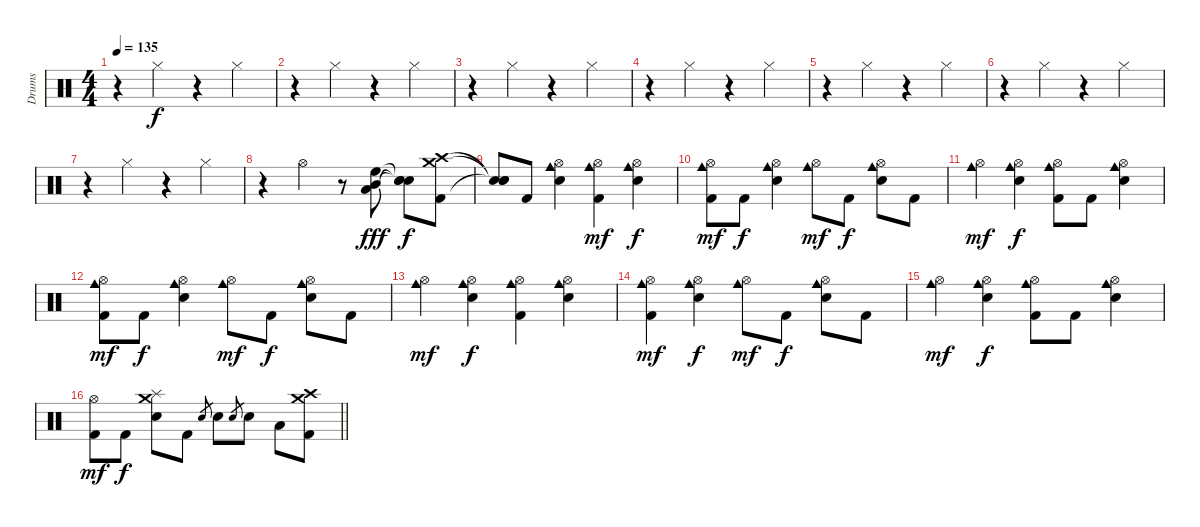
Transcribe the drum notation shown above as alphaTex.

\track ("Drums" "Drums") {instrument percussion}
\staff {score}
\articulation defaults
\ts (4 4)
\tempo 135
\clef neutral
\ks c
r.4{dy f} "Hi-Hat (closed)".4 r.4 "Hi-Hat (closed)".4 |
r.4 "Hi-Hat (closed)".4 r.4 "Hi-Hat (closed)".4 |
r.4 "Hi-Hat (closed)".4 r.4 "Hi-Hat (closed)".4 |
r.4 "Hi-Hat (closed)".4 r.4 "Hi-Hat (closed)".4 |
r.4 "Hi-Hat (closed)".4 r.4 "Hi-Hat (closed)".4 |
r.4 "Hi-Hat (closed)".4 r.4 "Hi-Hat (closed)".4 |
r.4 "Hi-Hat (closed)".4 r.4 "Hi-Hat (closed)".4 |
r.4 "Hi-Hat (open)".4 r.8 ("High Floor Tom (hit)" "Mid Tom (hit)" "Low Tom (hit)").8{dy fff} ("Snare (hit)"{t} "Snare (hit)"{t} "Snare (hit)"{t}).8{dy f} ("Crash high (hit)" "Crash medium (hit)" "Kick (hit) 2").8 |
("Snare (hit)"{t} "Snare (hit)"{t} "Snare (hit)"{t}).8 "Kick (hit) 2".8 ("Hi-Hat (open)" "Cowbell medium (hit)" "Electric Snare (hit)").4 ("Hi-Hat (open)" "Cowbell medium (hit)" "Kick (hit) 2").4{dy mf} ("Hi-Hat (open)" "Cowbell medium (hit)" "Electric Snare (hit)").4{dy f} |
("Hi-Hat (open)" "Cowbell medium (hit)" "Kick (hit) 2").8{dy mf} "Kick (hit) 2".8{dy f} ("Hi-Hat (open)" "Cowbell medium (hit)" "Electric Snare (hit)").4 ("Hi-Hat (open)" "Cowbell medium (hit)").8{dy mf} "Kick (hit) 2".8{dy f} ("Hi-Hat (open)" "Cowbell medium (hit)" "Electric Snare (hit)").8 "Kick (hit) 2".8 |
("Hi-Hat (open)" "Cowbell medium (hit)").4{dy mf} ("Hi-Hat (open)" "Cowbell medium (hit)" "Electric Snare (hit)").4{dy f} ("Hi-Hat (open)" "Cowbell medium (hit)" "Kick (hit) 2").8 "Kick (hit) 2".8 ("Hi-Hat (open)" "Cowbell medium (hit)" "Electric Snare (hit)").4 |
("Hi-Hat (open)" "Cowbell medium (hit)" "Kick (hit) 2").8{dy mf} "Kick (hit) 2".8{dy f} ("Hi-Hat (open)" "Cowbell medium (hit)" "Electric Snare (hit)").4 ("Hi-Hat (open)" "Cowbell medium (hit)").8{dy mf} "Kick (hit) 2".8{dy f} ("Hi-Hat (open)" "Cowbell medium (hit)" "Electric Snare (hit)").8 "Kick (hit) 2".8 |
("Hi-Hat (open)" "Cowbell medium (hit)").4{dy mf} ("Hi-Hat (open)" "Cowbell medium (hit)" "Electric Snare (hit)").4{dy f} ("Hi-Hat (open)" "Cowbell medium (hit)" "Kick (hit) 2").4 ("Hi-Hat (open)" "Cowbell medium (hit)" "Electric Snare (hit)").4 |
("Hi-Hat (open)" "Cowbell medium (hit)" "Kick (hit) 2").4{dy mf} ("Hi-Hat (open)" "Cowbell medium (hit)" "Electric Snare (hit)").4{dy f} ("Hi-Hat (open)" "Cowbell medium (hit)").8{dy mf} "Kick (hit) 2".8{dy f} ("Hi-Hat (open)" "Cowbell medium (hit)" "Electric Snare (hit)").8 "Kick (hit) 2".8 |
("Hi-Hat (open)" "Cowbell medium (hit)").4{dy mf} ("Hi-Hat (open)" "Cowbell medium (hit)" "Electric Snare (hit)").4{dy f} ("Hi-Hat (open)" "Cowbell medium (hit)" "Kick (hit) 2").8 "Kick (hit) 2".8 ("Hi-Hat (open)" "Cowbell medium (hit)" "Electric Snare (hit)").4 |
\barLineRight lightlight
("Hi-Hat (open)" "Kick (hit) 2").8{dy mf} "Kick (hit) 2".8{dy f} ("Crash medium (hit)" "Splash (hit)" "Electric Snare (hit)").8 "Kick (hit) 2".8 "Electric Snare (hit)".8{gr} "Electric Snare (hit)".8 "Electric Snare (hit)".8{gr} "Electric Snare (hit)".8 "Low Tom (hit)".8 ("Crash high (hit)" "Crash medium (hit)" "Kick (hit) 2").8
